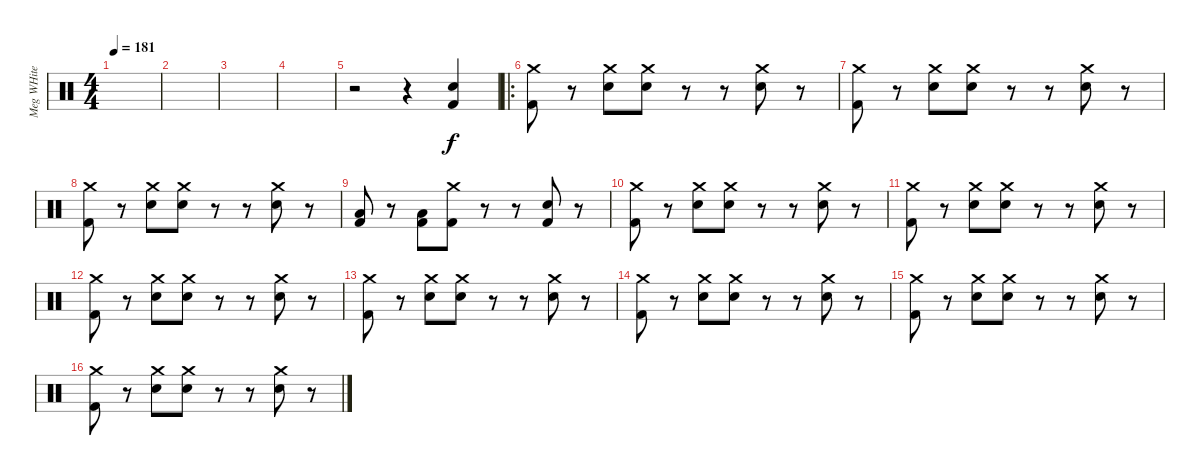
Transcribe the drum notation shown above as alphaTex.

\track ("Meg WHite" "Meg WHite") {instrument percussion}
\staff {score}
\articulation defaults
\ts (4 4)
\tempo 181
\clef neutral
\ks c
|
|
|
|
r.2 r.4 ("Electric Snare (hit)" "Kick (hit) 2").4 |
\ro
("Crash medium (hit)" "Kick (hit) 2").8 r.8 ("Crash medium (hit)" "Electric Snare (hit)").8 ("Crash medium (hit)" "Electric Snare (hit)").8 r.8 r.8 ("Crash medium (hit)" "Electric Snare (hit)").8 r.8 |
("Crash medium (hit)" "Kick (hit) 2").8 r.8 ("Crash medium (hit)" "Electric Snare (hit)").8 ("Crash medium (hit)" "Electric Snare (hit)").8 r.8 r.8 ("Crash medium (hit)" "Electric Snare (hit)").8 r.8 |
("Crash medium (hit)" "Kick (hit) 2").8 r.8 ("Crash medium (hit)" "Electric Snare (hit)").8 ("Crash medium (hit)" "Electric Snare (hit)").8 r.8 r.8 ("Crash medium (hit)" "Electric Snare (hit)").8 r.8 |
("Kick (hit) 2" "Low Floor Tom (hit)").8 r.8 ("Kick (hit) 2" "Low Floor Tom (hit)").8 ("Crash medium (hit)" "Kick (hit) 2").8 r.8 r.8 ("Electric Snare (hit)" "Kick (hit) 2").8 r.8 |
("Crash medium (hit)" "Kick (hit) 2").8 r.8 ("Crash medium (hit)" "Electric Snare (hit)").8 ("Crash medium (hit)" "Electric Snare (hit)").8 r.8 r.8 ("Crash medium (hit)" "Electric Snare (hit)").8 r.8 |
("Crash medium (hit)" "Kick (hit) 2").8 r.8 ("Crash medium (hit)" "Electric Snare (hit)").8 ("Crash medium (hit)" "Electric Snare (hit)").8 r.8 r.8 ("Crash medium (hit)" "Electric Snare (hit)").8 r.8 |
("Crash medium (hit)" "Kick (hit) 2").8 r.8 ("Crash medium (hit)" "Electric Snare (hit)").8 ("Crash medium (hit)" "Electric Snare (hit)").8 r.8 r.8 ("Crash medium (hit)" "Electric Snare (hit)").8 r.8 |
("Crash medium (hit)" "Kick (hit) 2").8 r.8 ("Crash medium (hit)" "Electric Snare (hit)").8 ("Crash medium (hit)" "Electric Snare (hit)").8 r.8 r.8 ("Crash medium (hit)" "Electric Snare (hit)").8 r.8 |
("Crash medium (hit)" "Kick (hit) 2").8 r.8 ("Crash medium (hit)" "Electric Snare (hit)").8 ("Crash medium (hit)" "Electric Snare (hit)").8 r.8 r.8 ("Crash medium (hit)" "Electric Snare (hit)").8 r.8 |
("Crash medium (hit)" "Kick (hit) 2").8 r.8 ("Crash medium (hit)" "Electric Snare (hit)").8 ("Crash medium (hit)" "Electric Snare (hit)").8 r.8 r.8 ("Crash medium (hit)" "Electric Snare (hit)").8 r.8 |
("Crash medium (hit)" "Kick (hit) 2").8 r.8 ("Crash medium (hit)" "Electric Snare (hit)").8 ("Crash medium (hit)" "Electric Snare (hit)").8 r.8 r.8 ("Crash medium (hit)" "Electric Snare (hit)").8 r.8
